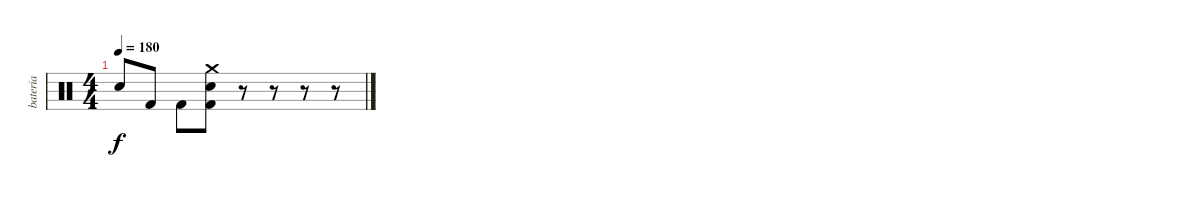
\track ("bateria" "bateria") {instrument percussion}
\staff {score}
\articulation defaults
\ts (4 4)
\tempo 180
\clef neutral
\ks c "Electric Snare (hit)".8{dy f} "Kick (hit) 2".8 "Kick (hit) 2".8
("Crash medium (hit)" "Kick (hit) 2" "Electric Snare (hit)").8 r.8 r.8 r.8 r.8
